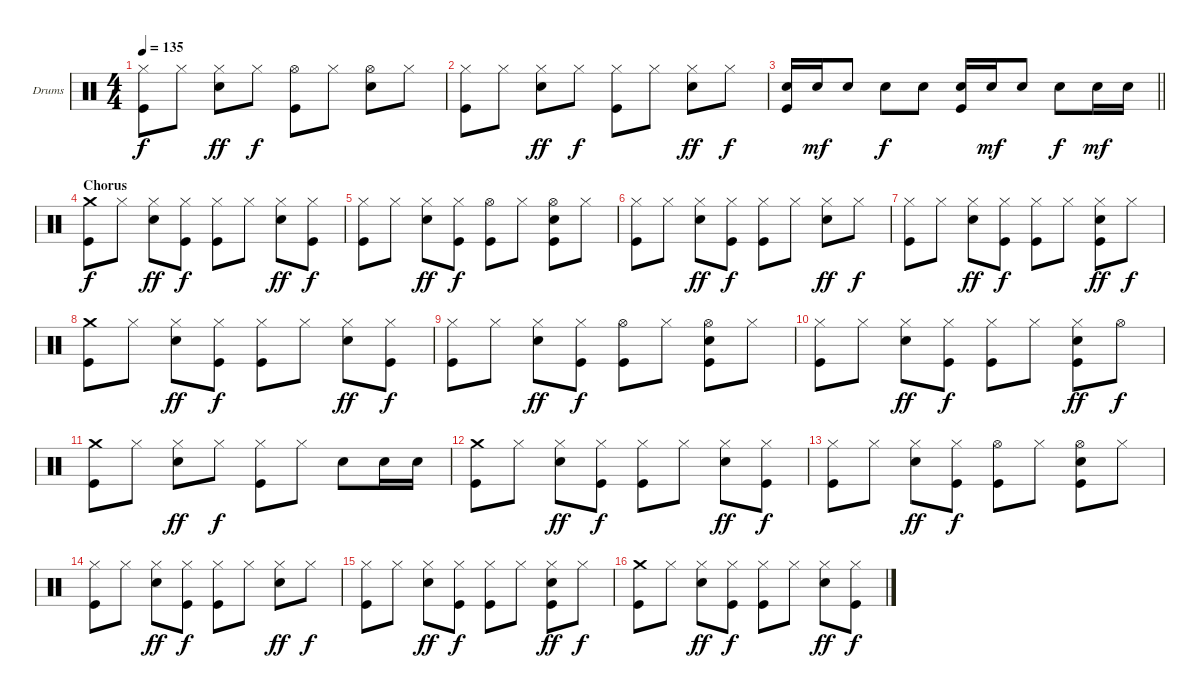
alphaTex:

\bracketExtendMode groupsimilarinstruments
\firstSystemTrackNameOrientation horizontal
\otherSystemsTrackNameOrientation horizontal
\track ("Drumkit" "Drums") {instrument percussion}
\staff {score}
\articulation defaults
\ts (4 4)
\tempo 135
\clef neutral
\ks c
("Hi-Hat (closed)" "Kick (hit)").8{dy f} "Hi-Hat (closed)".8 ("Hi-Hat (closed)" "Snare (hit) 2").8{dy ff} "Hi-Hat (closed)".8{dy f} ("Hi-Hat (open)" "Kick (hit)").8 "Hi-Hat (closed)".8 ("Hi-Hat (open)" "Snare (hit) 2").8 "Hi-Hat (closed)".8 |
("Hi-Hat (closed)" "Kick (hit)").8 "Hi-Hat (closed)".8 ("Hi-Hat (closed)" "Snare (hit) 2").8{dy ff} "Hi-Hat (closed)".8{dy f} ("Hi-Hat (closed)" "Kick (hit)").8 "Hi-Hat (closed)".8 ("Hi-Hat (closed)" "Snare (hit) 2").8{dy ff} "Hi-Hat (closed)".8{dy f} |
\barLineRight lightlight
("Snare (hit) 2" "Kick (hit)").16 "Snare (hit) 2".16{dy mf} "Snare (hit) 2".8 "Snare (hit) 2".8{dy f} "Snare (hit) 2".8 ("Snare (hit) 2" "Kick (hit)").16 "Snare (hit) 2".16{dy mf} "Snare (hit) 2".8 "Snare (hit) 2".8{dy f} "Snare (hit) 2".16{dy mf} "Snare (hit) 2".16 |
\section ("" "Chorus")
("Crash medium (hit)" "Kick (hit)").8{dy f} "Hi-Hat (closed)".8 ("Hi-Hat (closed)" "Snare (hit) 2").8{dy ff} ("Hi-Hat (closed)" "Kick (hit)").8{dy f} ("Hi-Hat (closed)" "Kick (hit)").8 "Hi-Hat (closed)".8 ("Hi-Hat (closed)" "Snare (hit) 2").8{dy ff} ("Hi-Hat (closed)" "Kick (hit)").8{dy f} |
("Hi-Hat (closed)" "Kick (hit)").8 "Hi-Hat (closed)".8 ("Hi-Hat (closed)" "Snare (hit) 2").8{dy ff} ("Hi-Hat (closed)" "Kick (hit)").8{dy f} ("Hi-Hat (open)" "Kick (hit)").8 "Hi-Hat (closed)".8 ("Hi-Hat (open)" "Snare (hit) 2" "Kick (hit)").8 "Hi-Hat (closed)".8 |
("Hi-Hat (closed)" "Kick (hit)").8 "Hi-Hat (closed)".8 ("Hi-Hat (closed)" "Snare (hit) 2").8{dy ff} ("Hi-Hat (closed)" "Kick (hit)").8{dy f} ("Hi-Hat (closed)" "Kick (hit)").8 "Hi-Hat (closed)".8 ("Hi-Hat (closed)" "Snare (hit) 2").8{dy ff} "Hi-Hat (closed)".8{dy f} |
("Hi-Hat (closed)" "Kick (hit)").8 "Hi-Hat (closed)".8 ("Hi-Hat (closed)" "Snare (hit) 2").8{dy ff} ("Hi-Hat (closed)" "Kick (hit)").8{dy f} ("Hi-Hat (closed)" "Kick (hit)").8 "Hi-Hat (closed)".8 ("Hi-Hat (closed)" "Snare (hit) 2" "Kick (hit)").8{dy ff} "Hi-Hat (closed)".8{dy f} |
("Crash medium (hit)" "Kick (hit)").8 "Hi-Hat (closed)".8 ("Hi-Hat (closed)" "Snare (hit) 2").8{dy ff} ("Hi-Hat (closed)" "Kick (hit)").8{dy f} ("Hi-Hat (closed)" "Kick (hit)").8 "Hi-Hat (closed)".8 ("Hi-Hat (closed)" "Snare (hit) 2").8{dy ff} ("Hi-Hat (closed)" "Kick (hit)").8{dy f} |
("Hi-Hat (closed)" "Kick (hit)").8 "Hi-Hat (closed)".8 ("Hi-Hat (closed)" "Snare (hit) 2").8{dy ff} ("Hi-Hat (closed)" "Kick (hit)").8{dy f} ("Hi-Hat (open)" "Kick (hit)").8 "Hi-Hat (closed)".8 ("Hi-Hat (open)" "Snare (hit) 2" "Kick (hit)").8 "Hi-Hat (closed)".8 |
("Hi-Hat (closed)" "Kick (hit)").8 "Hi-Hat (closed)".8 ("Hi-Hat (closed)" "Snare (hit) 2").8{dy ff} ("Hi-Hat (closed)" "Kick (hit)").8{dy f} ("Hi-Hat (closed)" "Kick (hit)").8 "Hi-Hat (closed)".8 ("Hi-Hat (closed)" "Snare (hit) 2" "Kick (hit)").8{dy ff} "Hi-Hat (open)".8{dy f} |
("Crash medium (hit)" "Kick (hit)").8 "Hi-Hat (closed)".8 ("Hi-Hat (closed)" "Snare (hit) 2").8{dy ff} "Hi-Hat (closed)".8{dy f} ("Hi-Hat (closed)" "Kick (hit)").8 "Hi-Hat (closed)".8 "Snare (hit) 2".8 "Snare (hit) 2".16 "Snare (hit) 2".16 |
("Crash medium (hit)" "Kick (hit)").8 "Hi-Hat (closed)".8 ("Hi-Hat (closed)" "Snare (hit) 2").8{dy ff} ("Hi-Hat (closed)" "Kick (hit)").8{dy f} ("Hi-Hat (closed)" "Kick (hit)").8 "Hi-Hat (closed)".8 ("Hi-Hat (closed)" "Snare (hit) 2").8{dy ff} ("Hi-Hat (closed)" "Kick (hit)").8{dy f} |
("Hi-Hat (closed)" "Kick (hit)").8 "Hi-Hat (closed)".8 ("Hi-Hat (closed)" "Snare (hit) 2").8{dy ff} ("Hi-Hat (closed)" "Kick (hit)").8{dy f} ("Hi-Hat (open)" "Kick (hit)").8 "Hi-Hat (closed)".8 ("Hi-Hat (open)" "Snare (hit) 2" "Kick (hit)").8 "Hi-Hat (closed)".8 |
("Hi-Hat (closed)" "Kick (hit)").8 "Hi-Hat (closed)".8 ("Hi-Hat (closed)" "Snare (hit) 2").8{dy ff} ("Hi-Hat (closed)" "Kick (hit)").8{dy f} ("Hi-Hat (closed)" "Kick (hit)").8 "Hi-Hat (closed)".8 ("Hi-Hat (closed)" "Snare (hit) 2").8{dy ff} "Hi-Hat (closed)".8{dy f} |
("Hi-Hat (closed)" "Kick (hit)").8 "Hi-Hat (closed)".8 ("Hi-Hat (closed)" "Snare (hit) 2").8{dy ff} ("Hi-Hat (closed)" "Kick (hit)").8{dy f} ("Hi-Hat (closed)" "Kick (hit)").8 "Hi-Hat (closed)".8 ("Hi-Hat (closed)" "Snare (hit) 2" "Kick (hit)").8{dy ff} "Hi-Hat (closed)".8{dy f} |
("Crash medium (hit)" "Kick (hit)").8 "Hi-Hat (closed)".8 ("Hi-Hat (closed)" "Snare (hit) 2").8{dy ff} ("Hi-Hat (closed)" "Kick (hit)").8{dy f} ("Hi-Hat (closed)" "Kick (hit)").8 "Hi-Hat (closed)".8 ("Hi-Hat (closed)" "Snare (hit) 2").8{dy ff} ("Hi-Hat (closed)" "Kick (hit)").8{dy f}
